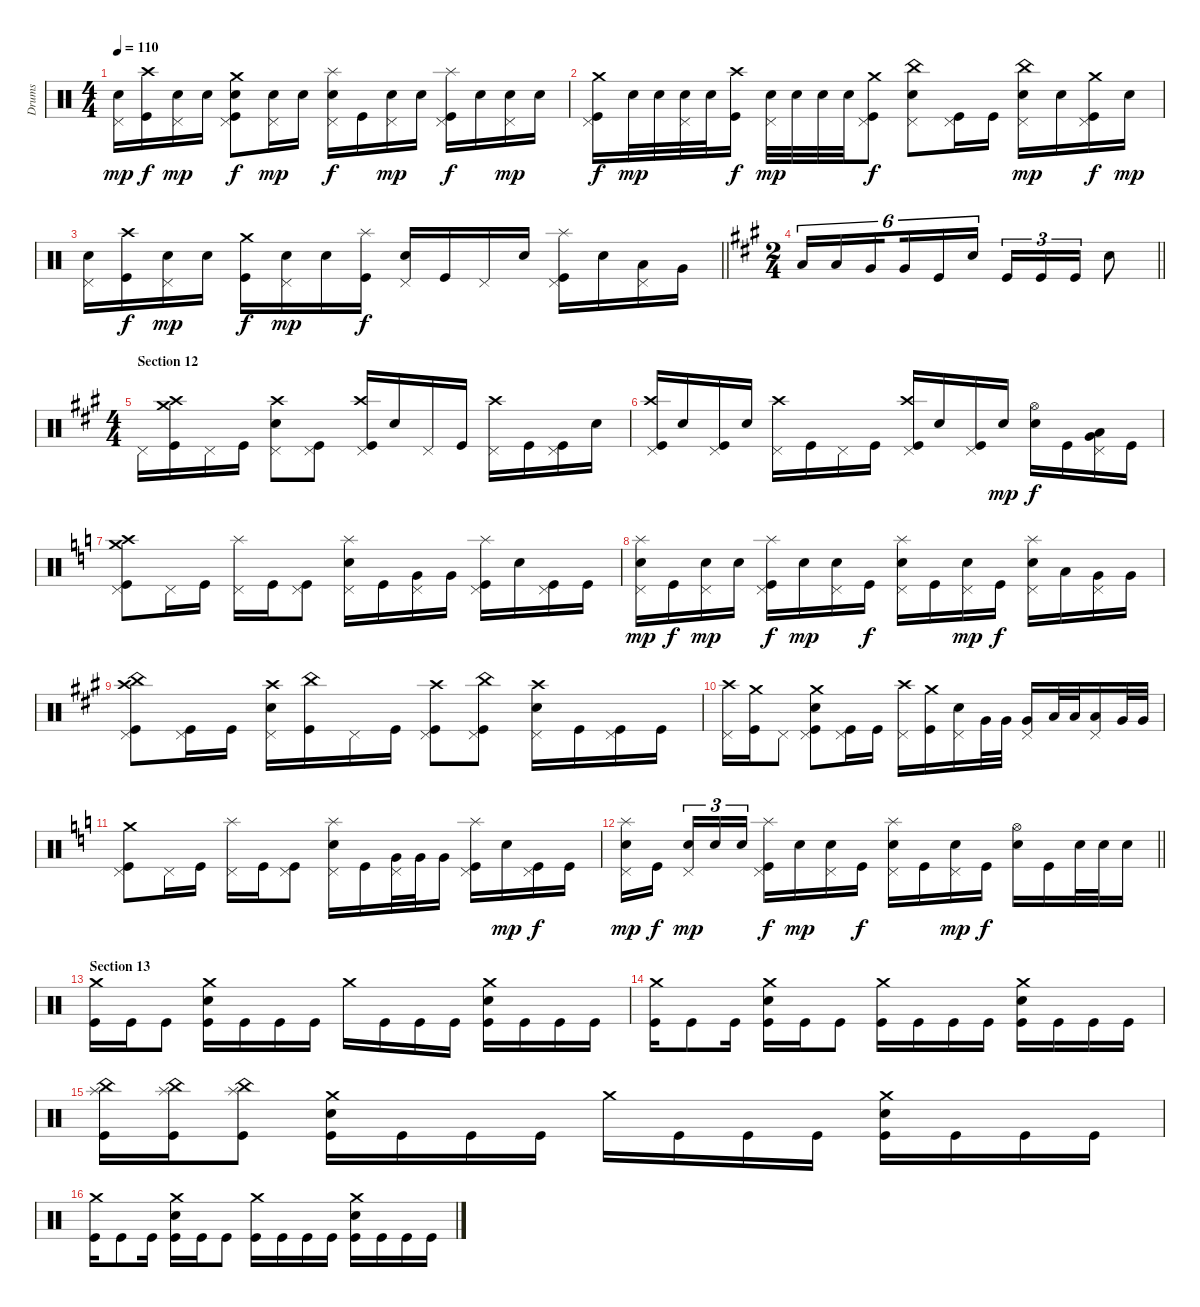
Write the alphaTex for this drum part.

\track ("Drums" "Drums") {instrument percussion}
\staff {score}
\articulation defaults
\ts (4 4)
\tempo 110
\clef neutral
\ks c
("Electric Snare (hit)" "Pedal Hi-Hat (hit)").16{dy mp} ("Crash high (hit)" "Kick (hit)").16{dy f} ("Electric Snare (hit)" "Pedal Hi-Hat (hit)").16{dy mp} "Electric Snare (hit)".16 ("Crash medium (hit)" "Electric Snare (hit)" "Kick (hit)" "Pedal Hi-Hat (hit)").8{dy f} ("Electric Snare (hit)" "Pedal Hi-Hat (hit)").16{dy mp} "Electric Snare (hit)".16 ("Splash (hit)" "Electric Snare (hit)" "Pedal Hi-Hat (hit)").16{dy f} "Kick (hit)".16 ("Electric Snare (hit)" "Pedal Hi-Hat (hit)").16{dy mp} "Electric Snare (hit)".16 ("Splash (hit)" "Kick (hit)" "Pedal Hi-Hat (hit)").16{dy f} "Electric Snare (hit)".16 ("Electric Snare (hit)" "Pedal Hi-Hat (hit)").16{dy mp} "Electric Snare (hit)".16 |
("Crash medium (hit)" "Kick (hit)" "Pedal Hi-Hat (hit)").16{dy f} "Electric Snare (hit)".32{dy mp} "Electric Snare (hit)".32 ("Electric Snare (hit)" "Pedal Hi-Hat (hit)").32 "Electric Snare (hit)".32 ("Crash high (hit)" "Kick (hit)").16{dy f} ("Electric Snare (hit)" "Pedal Hi-Hat (hit)").32{dy mp} "Electric Snare (hit)".32 "Electric Snare (hit)".32 "Electric Snare (hit)".32 ("Crash medium (hit)" "Kick (hit)" "Pedal Hi-Hat (hit)").8{dy f} ("China (hit)" "Electric Snare (hit)" "Pedal Hi-Hat (hit)").8 ("Kick (hit)" "Pedal Hi-Hat (hit)").16 "Kick (hit)".16 ("China (hit)" "Electric Snare (hit)" "Pedal Hi-Hat (hit)").16{dy mp} "Electric Snare (hit)".16 ("Crash medium (hit)" "Kick (hit)" "Pedal Hi-Hat (hit)").16{dy f} "Electric Snare (hit)".16{dy mp} |
\barLineRight lightlight
("Electric Snare (hit)" "Pedal Hi-Hat (hit)").16 ("Crash high (hit)" "Kick (hit)").16{dy f} ("Electric Snare (hit)" "Pedal Hi-Hat (hit)").16{dy mp} "Electric Snare (hit)".16 ("Crash medium (hit)" "Kick (hit)").16{dy f} ("Electric Snare (hit)" "Pedal Hi-Hat (hit)").16{dy mp} "Electric Snare (hit)".16 ("Splash (hit)" "Kick (hit)").16{dy f} ("Electric Snare (hit)" "Pedal Hi-Hat (hit)").16 "Kick (hit)".16 "Pedal Hi-Hat (hit)".16 "Electric Snare (hit)".16 ("Splash (hit)" "Kick (hit)" "Pedal Hi-Hat (hit)").16 "Electric Snare (hit)".16 ("Low Tom (hit)" "Pedal Hi-Hat (hit)").16 "Very Low Tom (hit)".16 |
\ts (2 4)
\barLineRight lightlight
\ks f#minor "Low Tom (hit)".16{tu (6 4)} "Low Tom (hit)".16{tu (6 4)} "Very Low Tom (hit)".16{tu (6 4) beam splitsecondary} "Very Low Tom (hit)".16{tu (6 4)} "Kick (hit)".16{tu (6 4)} "Electric Snare (hit)".16{tu (6 4)} "Kick (hit)".16{tu (3 2)} "Kick (hit)".16{tu (3 2)} "Kick (hit)".16{tu (3 2)} "Electric Snare (hit)".8
|
\ts (4 4)
\section ("" "Section 12")
"Pedal Hi-Hat (hit)".16 ("Crash high (hit)" "Crash medium (hit)" "Kick (hit)").16 "Pedal Hi-Hat (hit)".16 "Kick (hit)".16 ("Crash high (hit)" "Electric Snare (hit)" "Pedal Hi-Hat (hit)").8 ("Kick (hit)" "Pedal Hi-Hat (hit)").8 ("Crash high (hit)" "Kick (hit)" "Pedal Hi-Hat (hit)").16 "Electric Snare (hit)".16 "Pedal Hi-Hat (hit)".16 "Kick (hit)".16 ("Crash high (hit)" "Pedal Hi-Hat (hit)").16 "Kick (hit)".16 ("Kick (hit)" "Pedal Hi-Hat (hit)").16 "Electric Snare (hit)".16 |
("Crash high (hit)" "Kick (hit)" "Pedal Hi-Hat (hit)").16 "Electric Snare (hit)".16 ("Kick (hit)" "Pedal Hi-Hat (hit)").16 "Electric Snare (hit)".16 ("Crash high (hit)" "Pedal Hi-Hat (hit)").16 "Kick (hit)".16 "Pedal Hi-Hat (hit)".16 "Kick (hit)".16 ("Crash high (hit)" "Kick (hit)" "Pedal Hi-Hat (hit)").16 "Electric Snare (hit)".16 ("Kick (hit)" "Pedal Hi-Hat (hit)").16 "Electric Snare (hit)".16{dy mp} ("Hi-Hat (open)" "Electric Snare (hit)").16{dy f} "Kick (hit)".16 ("Low Tom (hit)" "Very Low Tom (hit)" "Pedal Hi-Hat (hit)").16 "Kick (hit)".16 |
\ks c
("Crash high (hit)" "Crash medium (hit)" "Kick (hit)" "Pedal Hi-Hat (hit)").8 "Pedal Hi-Hat (hit)".16 "Kick (hit)".16 ("Splash (hit)" "Pedal Hi-Hat (hit)").16 "Kick (hit)".16 ("Kick (hit)" "Pedal Hi-Hat (hit)").8 ("Splash (hit)" "Electric Snare (hit)" "Pedal Hi-Hat (hit)").16 "Kick (hit)".16 ("Very Low Tom (hit)" "Pedal Hi-Hat (hit)").16 "Very Low Tom (hit)".16 ("Splash (hit)" "Kick (hit)" "Pedal Hi-Hat (hit)").16 "Electric Snare (hit)".16 ("Kick (hit)" "Pedal Hi-Hat (hit)").16 "Kick (hit)".16 |
("Splash (hit)" "Electric Snare (hit)" "Pedal Hi-Hat (hit)").16{dy mp} "Kick (hit)".16{dy f} ("Electric Snare (hit)" "Pedal Hi-Hat (hit)").16{dy mp} "Electric Snare (hit)".16 ("Splash (hit)" "Kick (hit)" "Pedal Hi-Hat (hit)").16{dy f} "Electric Snare (hit)".16{dy mp} ("Electric Snare (hit)" "Pedal Hi-Hat (hit)").16 "Kick (hit)".16{dy f} ("Splash (hit)" "Electric Snare (hit)" "Pedal Hi-Hat (hit)").16 "Kick (hit)".16 ("Electric Snare (hit)" "Pedal Hi-Hat (hit)").16{dy mp} "Kick (hit)".16{dy f} ("Splash (hit)" "Electric Snare (hit)" "Pedal Hi-Hat (hit)").16 "Low Tom (hit)".16 ("Very Low Tom (hit)" "Pedal Hi-Hat (hit)").16 "Very Low Tom (hit)".16 |
\ks f#minor
("Crash high (hit)" "China (hit)" "Kick (hit)" "Pedal Hi-Hat (hit)").8 ("Kick (hit)" "Pedal Hi-Hat (hit)").16 "Kick (hit)".16 ("Crash high (hit)" "Electric Snare (hit)" "Pedal Hi-Hat (hit)").16 ("China (hit)" "Kick (hit)").16 "Pedal Hi-Hat (hit)".16 "Kick (hit)".16 ("Crash high (hit)" "Kick (hit)" "Pedal Hi-Hat (hit)").8 ("China (hit)" "Kick (hit)" "Pedal Hi-Hat (hit)").8 ("Crash high (hit)" "Electric Snare (hit)" "Pedal Hi-Hat (hit)").16 "Kick (hit)".16 ("Kick (hit)" "Pedal Hi-Hat (hit)").16 "Kick (hit)".16 |
("Crash high (hit)" "Pedal Hi-Hat (hit)").16 ("Crash medium (hit)" "Kick (hit)").16 "Pedal Hi-Hat (hit)".8 ("Crash medium (hit)" "Electric Snare (hit)" "Kick (hit)" "Pedal Hi-Hat (hit)").8 ("Kick (hit)" "Pedal Hi-Hat (hit)").16 "Kick (hit)".16 ("Crash high (hit)" "Pedal Hi-Hat (hit)").16 ("Crash medium (hit)" "Kick (hit)").16 ("Electric Snare (hit)" "Pedal Hi-Hat (hit)").16 "Very Low Tom (hit)".32 "Very Low Tom (hit)".32 ("Very Low Tom (hit)" "Pedal Hi-Hat (hit)").16 "Low Tom (hit)".32 "Low Tom (hit)".32 ("Low Tom (hit)" "Pedal Hi-Hat (hit)").16 "Very Low Tom (hit)".32 "Very Low Tom (hit)".32 |
\ks c
("Crash medium (hit)" "Kick (hit)" "Pedal Hi-Hat (hit)").8 "Pedal Hi-Hat (hit)".16 "Kick (hit)".16 ("Splash (hit)" "Pedal Hi-Hat (hit)").16 "Kick (hit)".16 ("Kick (hit)" "Pedal Hi-Hat (hit)").8 ("Splash (hit)" "Electric Snare (hit)" "Pedal Hi-Hat (hit)").16 "Kick (hit)".16 ("Very Low Tom (hit)" "Pedal Hi-Hat (hit)").32 "Very Low Tom (hit)".32 "Very Low Tom (hit)".16 ("Splash (hit)" "Kick (hit)" "Pedal Hi-Hat (hit)").16 "Electric Snare (hit)".16{dy mp} ("Kick (hit)" "Pedal Hi-Hat (hit)").16{dy f} "Kick (hit)".16 |
\barLineRight lightlight
("Splash (hit)" "Electric Snare (hit)" "Pedal Hi-Hat (hit)").16{dy mp} "Kick (hit)".16{dy f beam splitsecondary} ("Electric Snare (hit)" "Pedal Hi-Hat (hit)").16{tu (3 2) dy mp} "Electric Snare (hit)".16{tu (3 2)} "Electric Snare (hit)".16{tu (3 2)} ("Splash (hit)" "Kick (hit)" "Pedal Hi-Hat (hit)").16{dy f} "Electric Snare (hit)".16{dy mp} ("Electric Snare (hit)" "Pedal Hi-Hat (hit)").16 "Kick (hit)".16{dy f} ("Splash (hit)" "Electric Snare (hit)" "Pedal Hi-Hat (hit)").16 "Kick (hit)".16 ("Electric Snare (hit)" "Pedal Hi-Hat (hit)").16{dy mp} "Kick (hit)".16{dy f} ("Hi-Hat (open)" "Electric Snare (hit)").16 "Kick (hit)".16 "Electric Snare (hit)".32 "Electric Snare (hit)".32 "Electric Snare (hit)".16 |
\section ("" "Section 13")
("Crash medium (hit)" "Kick (hit)").16 "Kick (hit)".16 "Kick (hit)".8 ("Crash medium (hit)" "Electric Snare (hit)" "Kick (hit)").16 "Kick (hit)".16 "Kick (hit)".16 "Kick (hit)".16 "Crash medium (hit)".16 "Kick (hit)".16 "Kick (hit)".16 "Kick (hit)".16 ("Crash medium (hit)" "Electric Snare (hit)" "Kick (hit)").16 "Kick (hit)".16 "Kick (hit)".16 "Kick (hit)".16 |
("Crash medium (hit)" "Kick (hit)").16 "Kick (hit)".8 "Kick (hit)".16 ("Crash medium (hit)" "Electric Snare (hit)" "Kick (hit)").16 "Kick (hit)".16 "Kick (hit)".8 ("Crash medium (hit)" "Kick (hit)").16 "Kick (hit)".16 "Kick (hit)".16 "Kick (hit)".16 ("Crash medium (hit)" "Electric Snare (hit)" "Kick (hit)").16 "Kick (hit)".16 "Kick (hit)".16 "Kick (hit)".16 |
("China (hit)" "Splash (hit)" "Kick (hit)").16 ("China (hit)" "Splash (hit)" "Kick (hit)").16 ("China (hit)" "Splash (hit)" "Kick (hit)").8 ("Crash medium (hit)" "Electric Snare (hit)" "Kick (hit)").16 "Kick (hit)".16 "Kick (hit)".16 "Kick (hit)".16 "Crash medium (hit)".16 "Kick (hit)".16 "Kick (hit)".16 "Kick (hit)".16 ("Crash medium (hit)" "Electric Snare (hit)" "Kick (hit)").16 "Kick (hit)".16 "Kick (hit)".16 "Kick (hit)".16 |
("Crash medium (hit)" "Kick (hit)").16 "Kick (hit)".8 "Kick (hit)".16 ("Crash medium (hit)" "Electric Snare (hit)" "Kick (hit)").16 "Kick (hit)".16 "Kick (hit)".8 ("Crash medium (hit)" "Kick (hit)").16 "Kick (hit)".16 "Kick (hit)".16 "Kick (hit)".16 ("Crash medium (hit)" "Electric Snare (hit)" "Kick (hit)").16 "Kick (hit)".16 "Kick (hit)".16 "Kick (hit)".16
